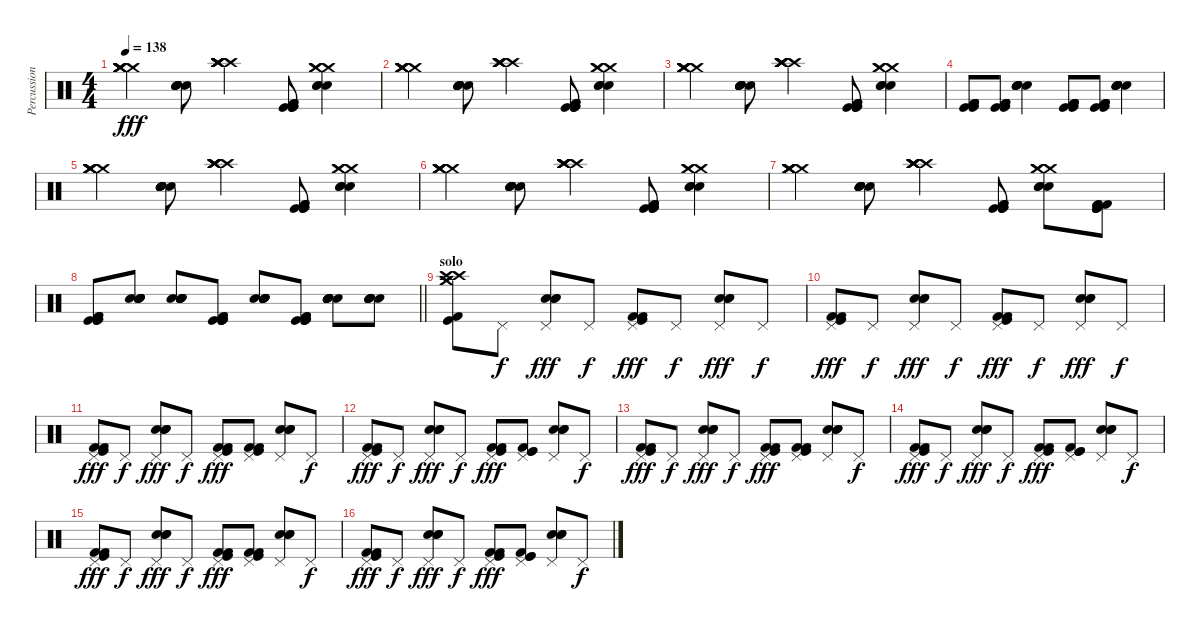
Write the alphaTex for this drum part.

\track ("Percussion" "Percussion") {instrument percussion}
\staff {score}
\articulation defaults
\ts (4 4)
\tempo 138
\clef neutral
\ks c
("Crash medium (hit)" "Crash medium (hit)" "Crash medium (hit)" "Crash medium (hit)" "Crash medium (hit)" "Crash medium (hit)").4{dy fff} ("Electric Snare (hit)" "Snare (hit) 2" "Electric Snare (hit)" "Electric Snare (hit)" "Snare (hit) 2" "Electric Snare (hit)").8 ("Crash high (hit)" "Crash high (hit)" "Crash high (hit)" "Crash high (hit)" "Crash high (hit)" "Crash high (hit)").4 ("Kick (hit)" "Kick (hit) 2" "Kick (hit)" "Kick (hit) 2" "Kick (hit) 2" "Kick (hit)").8 ("Crash medium (hit)" "Crash medium (hit)" "Crash medium (hit)" "Electric Snare (hit)" "Electric Snare (hit)" "Electric Snare (hit)").4 |
("Crash medium (hit)" "Crash medium (hit)" "Crash medium (hit)" "Crash medium (hit)" "Crash medium (hit)" "Crash medium (hit)").4 ("Electric Snare (hit)" "Snare (hit) 2" "Electric Snare (hit)" "Electric Snare (hit)" "Snare (hit) 2" "Electric Snare (hit)").8 ("Crash high (hit)" "Crash high (hit)" "Crash high (hit)" "Crash high (hit)" "Crash high (hit)" "Crash high (hit)").4 ("Kick (hit)" "Kick (hit) 2" "Kick (hit)" "Kick (hit) 2" "Kick (hit) 2" "Kick (hit)").8 ("Crash medium (hit)" "Crash medium (hit)" "Crash medium (hit)" "Electric Snare (hit)" "Electric Snare (hit)" "Electric Snare (hit)").4 |
("Crash medium (hit)" "Crash medium (hit)" "Crash medium (hit)" "Crash medium (hit)" "Crash medium (hit)" "Crash medium (hit)").4 ("Electric Snare (hit)" "Snare (hit) 2" "Electric Snare (hit)" "Electric Snare (hit)" "Snare (hit) 2" "Electric Snare (hit)").8 ("Crash high (hit)" "Crash high (hit)" "Crash high (hit)" "Crash high (hit)" "Crash high (hit)" "Crash high (hit)").4 ("Kick (hit)" "Kick (hit) 2" "Kick (hit)" "Kick (hit) 2" "Kick (hit) 2" "Kick (hit)").8 ("Crash medium (hit)" "Crash medium (hit)" "Crash medium (hit)" "Electric Snare (hit)" "Electric Snare (hit)" "Electric Snare (hit)").4 |
("Kick (hit) 2" "Kick (hit)" "Kick (hit) 2" "Kick (hit) 2" "Kick (hit)" "Kick (hit) 2").8 ("Kick (hit) 2" "Kick (hit)" "Kick (hit) 2" "Kick (hit) 2" "Kick (hit)" "Kick (hit) 2").8 ("Electric Snare (hit)" "Snare (hit) 2" "Electric Snare (hit)" "Electric Snare (hit)" "Snare (hit) 2" "Electric Snare (hit)").4 ("Kick (hit) 2" "Kick (hit)" "Kick (hit) 2" "Kick (hit) 2" "Kick (hit)" "Kick (hit) 2").8 ("Kick (hit) 2" "Kick (hit)" "Kick (hit) 2" "Kick (hit) 2" "Kick (hit)" "Kick (hit) 2").8 ("Electric Snare (hit)" "Snare (hit) 2" "Electric Snare (hit)" "Electric Snare (hit)" "Snare (hit) 2" "Electric Snare (hit)").4 |
("Crash medium (hit)" "Crash medium (hit)" "Crash medium (hit)" "Crash medium (hit)" "Crash medium (hit)" "Crash medium (hit)").4 ("Electric Snare (hit)" "Snare (hit) 2" "Electric Snare (hit)" "Electric Snare (hit)" "Snare (hit) 2" "Electric Snare (hit)").8 ("Crash high (hit)" "Crash high (hit)" "Crash high (hit)" "Crash high (hit)" "Crash high (hit)" "Crash high (hit)").4 ("Kick (hit)" "Kick (hit) 2" "Kick (hit)" "Kick (hit) 2" "Kick (hit) 2" "Kick (hit)").8 ("Crash medium (hit)" "Crash medium (hit)" "Crash medium (hit)" "Electric Snare (hit)" "Electric Snare (hit)" "Electric Snare (hit)").4 |
("Crash medium (hit)" "Crash medium (hit)" "Crash medium (hit)" "Crash medium (hit)" "Crash medium (hit)" "Crash medium (hit)").4 ("Electric Snare (hit)" "Snare (hit) 2" "Electric Snare (hit)" "Electric Snare (hit)" "Snare (hit) 2" "Electric Snare (hit)").8 ("Crash high (hit)" "Crash high (hit)" "Crash high (hit)" "Crash high (hit)" "Crash high (hit)" "Crash high (hit)").4 ("Kick (hit)" "Kick (hit) 2" "Kick (hit)" "Kick (hit) 2" "Kick (hit) 2" "Kick (hit)").8 ("Crash medium (hit)" "Crash medium (hit)" "Crash medium (hit)" "Electric Snare (hit)" "Electric Snare (hit)" "Electric Snare (hit)").4 |
("Crash medium (hit)" "Crash medium (hit)" "Crash medium (hit)" "Crash medium (hit)" "Crash medium (hit)" "Crash medium (hit)").4 ("Electric Snare (hit)" "Snare (hit) 2" "Electric Snare (hit)" "Electric Snare (hit)" "Snare (hit) 2" "Electric Snare (hit)").8 ("Crash high (hit)" "Crash high (hit)" "Crash high (hit)" "Crash high (hit)" "Crash high (hit)" "Crash high (hit)").4 ("Kick (hit)" "Kick (hit) 2" "Kick (hit)" "Kick (hit) 2" "Kick (hit) 2" "Kick (hit)").8 ("Crash medium (hit)" "Crash medium (hit)" "Crash medium (hit)" "Electric Snare (hit)" "Electric Snare (hit)" "Electric Snare (hit)").8 ("Kick (hit)" "Kick (hit) 2" "Kick (hit)" "Kick (hit) 2" "Kick (hit) 2" "Kick (hit)").8 |
\barLineRight lightlight
("Kick (hit)" "Kick (hit) 2" "Kick (hit)" "Kick (hit) 2" "Kick (hit) 2" "Kick (hit)").8 ("Electric Snare (hit)" "Snare (hit) 2" "Electric Snare (hit)" "Electric Snare (hit)" "Snare (hit) 2" "Electric Snare (hit)").8 ("Electric Snare (hit)" "Snare (hit) 2" "Electric Snare (hit)" "Electric Snare (hit)" "Snare (hit) 2" "Electric Snare (hit)").8 ("Kick (hit)" "Kick (hit) 2" "Kick (hit)" "Kick (hit)" "Kick (hit) 2" "Kick (hit)").8 ("Electric Snare (hit)" "Snare (hit) 2" "Electric Snare (hit)" "Electric Snare (hit)" "Snare (hit) 2" "Electric Snare (hit)").8 ("Kick (hit)" "Kick (hit) 2" "Kick (hit)" "Kick (hit)" "Kick (hit) 2" "Kick (hit)").8 ("Electric Snare (hit)" "Snare (hit) 2" "Electric Snare (hit)" "Electric Snare (hit)" "Snare (hit) 2" "Electric Snare (hit)").8 ("Electric Snare (hit)" "Snare (hit) 2" "Electric Snare (hit)" "Electric Snare (hit)" "Snare (hit) 2" "Electric Snare (hit)").8 |
\section ("" "solo")
("Crash high (hit)" "Crash medium (hit)" "Kick (hit)" "Crash high (hit)" "Crash medium (hit)" "Kick (hit) 2").8 "Pedal Hi-Hat (hit)".8{dy f} ("Pedal Hi-Hat (hit)" "Electric Snare (hit)" "Snare (hit) 2" "Electric Snare (hit)").8{dy fff} "Pedal Hi-Hat (hit)".8{dy f} ("Pedal Hi-Hat (hit)" "Kick (hit) 2" "Kick (hit)" "Kick (hit) 2").8{dy fff} "Pedal Hi-Hat (hit)".8{dy f} ("Pedal Hi-Hat (hit)" "Electric Snare (hit)" "Snare (hit) 2" "Electric Snare (hit)").8{dy fff} "Pedal Hi-Hat (hit)".8{dy f} |
("Pedal Hi-Hat (hit)" "Kick (hit) 2" "Kick (hit)" "Kick (hit) 2").8{dy fff} "Pedal Hi-Hat (hit)".8{dy f} ("Pedal Hi-Hat (hit)" "Electric Snare (hit)" "Snare (hit) 2" "Electric Snare (hit)").8{dy fff} "Pedal Hi-Hat (hit)".8{dy f} ("Pedal Hi-Hat (hit)" "Kick (hit) 2" "Kick (hit)" "Kick (hit) 2").8{dy fff} "Pedal Hi-Hat (hit)".8{dy f} ("Pedal Hi-Hat (hit)" "Electric Snare (hit)" "Snare (hit) 2" "Electric Snare (hit)").8{dy fff} "Pedal Hi-Hat (hit)".8{dy f} |
("Pedal Hi-Hat (hit)" "Kick (hit) 2" "Kick (hit)" "Kick (hit) 2").8{dy fff} "Pedal Hi-Hat (hit)".8{dy f} ("Pedal Hi-Hat (hit)" "Electric Snare (hit)" "Snare (hit) 2" "Electric Snare (hit)").8{dy fff} "Pedal Hi-Hat (hit)".8{dy f} ("Pedal Hi-Hat (hit)" "Kick (hit) 2" "Kick (hit)" "Kick (hit) 2").8{dy fff} ("Pedal Hi-Hat (hit)" "Kick (hit) 2" "Kick (hit)" "Kick (hit) 2").8 ("Pedal Hi-Hat (hit)" "Electric Snare (hit)" "Snare (hit) 2" "Electric Snare (hit)").8 "Pedal Hi-Hat (hit)".8{dy f} |
("Pedal Hi-Hat (hit)" "Kick (hit) 2" "Kick (hit)" "Kick (hit) 2").8{dy fff} "Pedal Hi-Hat (hit)".8{dy f} ("Pedal Hi-Hat (hit)" "Electric Snare (hit)" "Snare (hit) 2" "Electric Snare (hit)").8{dy fff} "Pedal Hi-Hat (hit)".8{dy f} ("Pedal Hi-Hat (hit)" "Kick (hit) 2" "Kick (hit)" "Kick (hit) 2").8{dy fff} ("Pedal Hi-Hat (hit)" "Kick (hit) 2" "Kick (hit)" "Kick (hit)").8 ("Pedal Hi-Hat (hit)" "Electric Snare (hit)" "Snare (hit) 2" "Electric Snare (hit)").8 "Pedal Hi-Hat (hit)".8{dy f} |
("Pedal Hi-Hat (hit)" "Kick (hit) 2" "Kick (hit)" "Kick (hit) 2").8{dy fff} "Pedal Hi-Hat (hit)".8{dy f} ("Pedal Hi-Hat (hit)" "Electric Snare (hit)" "Snare (hit) 2" "Electric Snare (hit)").8{dy fff} "Pedal Hi-Hat (hit)".8{dy f} ("Pedal Hi-Hat (hit)" "Kick (hit) 2" "Kick (hit)" "Kick (hit) 2").8{dy fff} ("Pedal Hi-Hat (hit)" "Kick (hit) 2" "Kick (hit)" "Kick (hit) 2").8 ("Pedal Hi-Hat (hit)" "Electric Snare (hit)" "Snare (hit) 2" "Electric Snare (hit)").8 "Pedal Hi-Hat (hit)".8{dy f} |
("Pedal Hi-Hat (hit)" "Kick (hit) 2" "Kick (hit)" "Kick (hit) 2").8{dy fff} "Pedal Hi-Hat (hit)".8{dy f} ("Pedal Hi-Hat (hit)" "Electric Snare (hit)" "Snare (hit) 2" "Electric Snare (hit)").8{dy fff} "Pedal Hi-Hat (hit)".8{dy f} ("Pedal Hi-Hat (hit)" "Kick (hit) 2" "Kick (hit)" "Kick (hit) 2").8{dy fff} ("Pedal Hi-Hat (hit)" "Kick (hit) 2" "Kick (hit)" "Kick (hit)").8 ("Pedal Hi-Hat (hit)" "Electric Snare (hit)" "Snare (hit) 2" "Electric Snare (hit)").8 "Pedal Hi-Hat (hit)".8{dy f} |
("Pedal Hi-Hat (hit)" "Kick (hit) 2" "Kick (hit)" "Kick (hit) 2").8{dy fff} "Pedal Hi-Hat (hit)".8{dy f} ("Pedal Hi-Hat (hit)" "Electric Snare (hit)" "Snare (hit) 2" "Electric Snare (hit)").8{dy fff} "Pedal Hi-Hat (hit)".8{dy f} ("Pedal Hi-Hat (hit)" "Kick (hit) 2" "Kick (hit)" "Kick (hit) 2").8{dy fff} ("Pedal Hi-Hat (hit)" "Kick (hit) 2" "Kick (hit)" "Kick (hit) 2").8 ("Pedal Hi-Hat (hit)" "Electric Snare (hit)" "Snare (hit) 2" "Electric Snare (hit)").8 "Pedal Hi-Hat (hit)".8{dy f} |
("Pedal Hi-Hat (hit)" "Kick (hit) 2" "Kick (hit)" "Kick (hit) 2").8{dy fff} "Pedal Hi-Hat (hit)".8{dy f} ("Pedal Hi-Hat (hit)" "Electric Snare (hit)" "Snare (hit) 2" "Electric Snare (hit)").8{dy fff} "Pedal Hi-Hat (hit)".8{dy f} ("Pedal Hi-Hat (hit)" "Kick (hit) 2" "Kick (hit)" "Kick (hit) 2").8{dy fff} ("Pedal Hi-Hat (hit)" "Kick (hit) 2" "Kick (hit)" "Kick (hit)").8 ("Pedal Hi-Hat (hit)" "Electric Snare (hit)" "Snare (hit) 2" "Electric Snare (hit)").8 "Pedal Hi-Hat (hit)".8{dy f}
